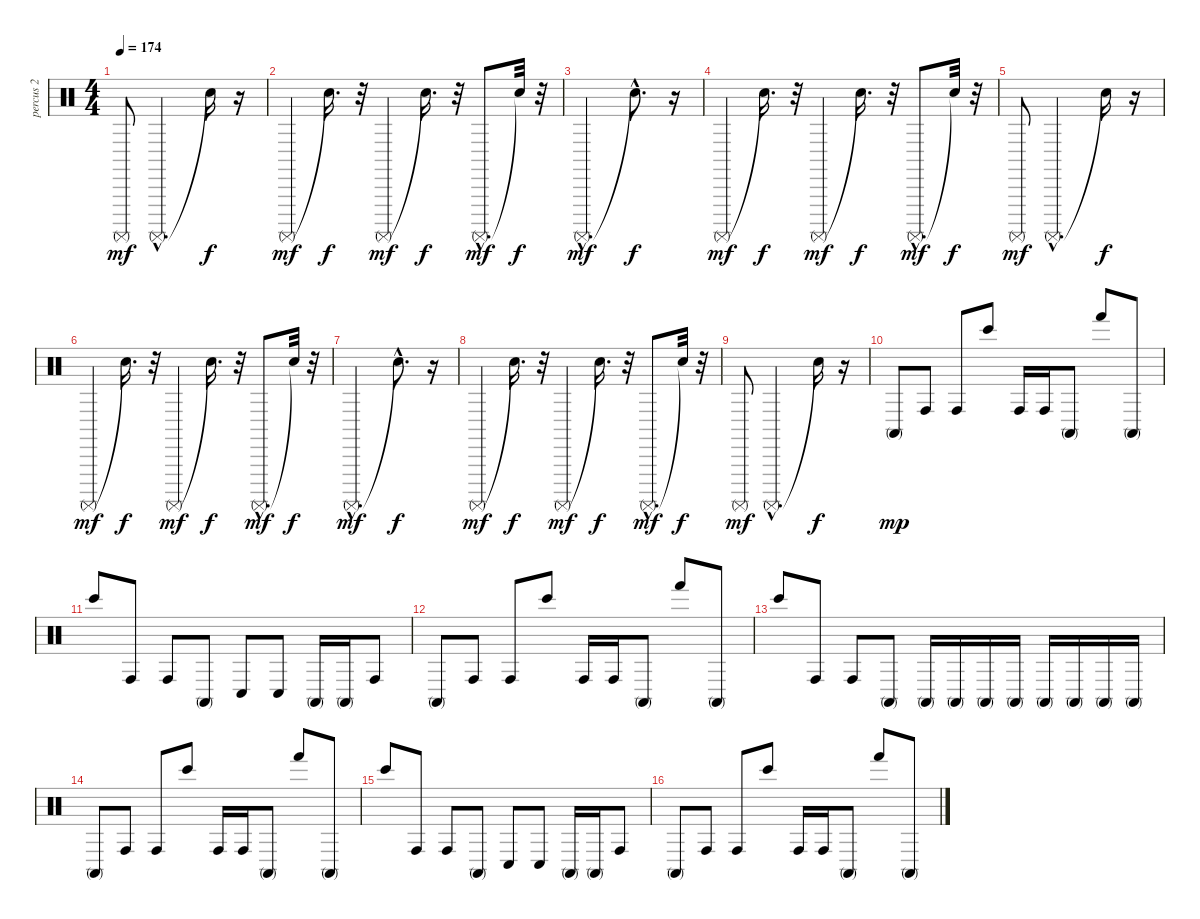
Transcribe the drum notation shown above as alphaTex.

\track ("percus 2" "percus 2") {instrument percussion}
\staff {score}
\articulation defaults
\ts (4 4)
\tempo 174
\clef neutral
\ks c "Surdo (mute)".8{dy mf} "Surdo (mute)"{hac}.2{d} "Snare (hit)"{t}.16{dy f}
r.16 |
"Surdo (mute)".4{dy mf} "Snare (hit)"{t}.16{d dy f} r.32 "Surdo (mute)".4{dy mf} "Snare (hit)"{t}.16{d dy f} r.32 "Surdo (mute)"{hac}.8{d dy mf} "Snare (hit)"{t}.32{dy f} r.32 |
"Surdo (mute)"{hac}.2{d dy mf} "Snare (hit)"{hac t}.8{d dy f} r.16 |
"Surdo (mute)".4{dy mf} "Snare (hit)"{t}.16{d dy f} r.32 "Surdo (mute)".4{dy mf} "Snare (hit)"{t}.16{d dy f} r.32 "Surdo (mute)"{hac}.8{d dy mf} "Snare (hit)"{t}.32{dy f} r.32 |
"Surdo (mute)".8{dy mf} "Surdo (mute)"{hac}.2{d} "Snare (hit)"{t}.16{dy f} r.16 |
"Surdo (mute)".4{dy mf} "Snare (hit)"{t}.16{d dy f} r.32 "Surdo (mute)".4{dy mf} "Snare (hit)"{t}.16{d dy f} r.32 "Surdo (mute)"{hac}.8{d dy mf} "Snare (hit)"{t}.32{dy f} r.32 |
"Surdo (mute)"{hac}.2{d dy mf} "Snare (hit)"{hac t}.8{d dy f} r.16 |
"Surdo (mute)".4{dy mf} "Snare (hit)"{t}.16{d dy f} r.32 "Surdo (mute)".4{dy mf} "Snare (hit)"{t}.16{d dy f} r.32 "Surdo (mute)"{hac}.8{d dy mf} "Snare (hit)"{t}.32{dy f} r.32 |
"Surdo (mute)".8{dy mf} "Surdo (mute)"{hac}.2{d} "Snare (hit)"{t}.16{dy f} r.16 |
"Conga high (mute)".8{dy mp} "Conga high (hit)".8 "Conga high (hit)".8 "Bongo High (hit)".8 "Conga high (hit)".16 "Conga high (hit)".16 "Conga high (mute)".8 "Hand (hit)".8 "Conga high (mute)".8 |
"Bongo High (hit)".8 "Conga high (hit)".8 "Conga high (hit)".8 "Conga high (mute)".8 "Conga low (hit)".8 "Conga low (hit)".8 "Conga high (mute)".16 "Conga high (mute)".16 "Conga high (hit)".8 |
"Conga high (mute)".8 "Conga high (hit)".8 "Conga high (hit)".8 "Bongo High (hit)".8 "Conga high (hit)".16 "Conga high (hit)".16 "Conga high (mute)".8 "Hand (hit)".8 "Conga high (mute)".8 |
"Bongo High (hit)".8 "Conga high (hit)".8 "Conga high (hit)".8 "Conga high (mute)".8 "Conga high (mute)".16 "Conga high (mute)".16 "Conga high (mute)".16 "Conga high (mute)".16 "Conga high (mute)".16 "Conga high (mute)".16 "Conga high (mute)".16 "Conga high (mute)".16 |
"Conga high (mute)".8 "Conga high (hit)".8 "Conga high (hit)".8 "Bongo High (hit)".8 "Conga high (hit)".16 "Conga high (hit)".16 "Conga high (mute)".8 "Hand (hit)".8 "Conga high (mute)".8 |
"Bongo High (hit)".8 "Conga high (hit)".8 "Conga high (hit)".8 "Conga high (mute)".8 "Conga low (hit)".8 "Conga low (hit)".8 "Conga high (mute)".16 "Conga high (mute)".16 "Conga high (hit)".8 |
"Conga high (mute)".8 "Conga high (hit)".8 "Conga high (hit)".8 "Bongo High (hit)".8 "Conga high (hit)".16 "Conga high (hit)".16 "Conga high (mute)".8 "Hand (hit)".8 "Conga high (mute)".8
